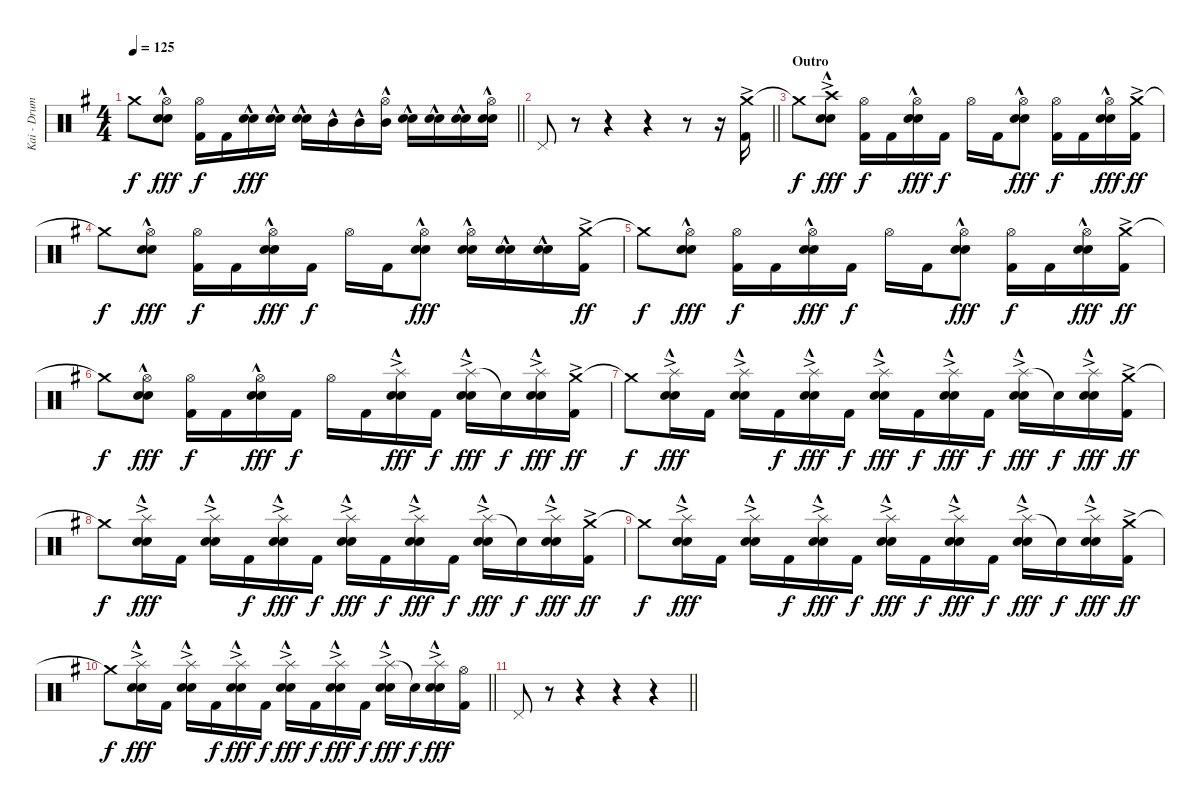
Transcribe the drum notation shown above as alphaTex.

\track ("Kai - Drums" "Kai - Drum") {instrument percussion}
\staff {score}
\articulation defaults
\ts (4 4)
\tempo 125
\clef neutral
\barLineRight lightlight
\ks eminor "Crash medium (hit)"{t}.8{dy f}
("Hi-Hat (open)" "Electric Snare (hit)"{hac} "Snare (hit) 2"{hac}).8{dy fff} ("Hi-Hat (open)" "Kick (hit) 2").16{dy f} "Kick (hit) 2".16 ("Electric Snare (hit)"{hac} "Snare (hit) 2"{hac}).16{dy fff} ("Electric Snare (hit)"{hac} "Snare (hit) 2"{hac}).16 ("Electric Snare (hit)"{hac} "Snare (hit) 2"{hac}).16 "Mid Tom (hit)"{hac}.16 "Mid Tom (hit)"{hac}.16 ("Hi-Hat (open)" "Mid Tom (hit)"{hac}).16 ("Electric Snare (hit)"{hac} "Snare (hit) 2"{hac}).16 ("Electric Snare (hit)"{hac} "Snare (hit) 2"{hac}).16 ("Electric Snare (hit)"{hac} "Snare (hit) 2"{hac}).16 ("Hi-Hat (open)" "Electric Snare (hit)"{hac} "Snare (hit) 2"{hac}).16 |
\barLineRight lightlight "Pedal Hi-Hat (hit)".8
r.8 r.4 r.4 r.8 r.16 ("Crash medium (hit)"{ac} "Kick (hit) 2").16 |
\section ("" "Outro")
"Crash medium (hit)"{t}.8{dy f} ("Crash high (hit)"{ac} "Electric Snare (hit)"{hac} "Snare (hit) 2"{hac}).8{dy fff} ("Hi-Hat (open)" "Kick (hit) 2").16{dy f} "Kick (hit) 2".16 ("Hi-Hat (open)" "Electric Snare (hit)"{hac} "Snare (hit) 2"{hac}).16{dy fff} "Kick (hit) 2".16{dy f} "Hi-Hat (open)".16 "Kick (hit) 2".16 ("Hi-Hat (open)" "Electric Snare (hit)"{hac} "Snare (hit) 2"{hac}).8{dy fff} ("Hi-Hat (open)" "Kick (hit) 2").16{dy f} "Kick (hit) 2".16 ("Hi-Hat (open)" "Electric Snare (hit)"{hac} "Snare (hit) 2"{hac}).16{dy fff} ("Crash medium (hit)"{ac} "Kick (hit) 2").16{dy ff} |
"Crash medium (hit)"{t}.8{dy f} ("Hi-Hat (open)" "Electric Snare (hit)"{hac} "Snare (hit) 2"{hac}).8{dy fff} ("Hi-Hat (open)" "Kick (hit) 2").16{dy f} "Kick (hit) 2".16 ("Hi-Hat (open)" "Electric Snare (hit)"{hac} "Snare (hit) 2"{hac}).16{dy fff} "Kick (hit) 2".16{dy f} "Hi-Hat (open)".16 "Kick (hit) 2".16 ("Hi-Hat (open)" "Electric Snare (hit)"{hac} "Snare (hit) 2"{hac}).8{dy fff} ("Hi-Hat (open)" "Electric Snare (hit)"{hac} "Snare (hit) 2"{hac}).16 ("Electric Snare (hit)"{hac} "Snare (hit) 2"{hac}).16 ("Electric Snare (hit)"{hac} "Snare (hit) 2"{hac}).16 ("Crash medium (hit)"{ac} "Kick (hit) 2").16{dy ff} |
"Crash medium (hit)"{t}.8{dy f} ("Hi-Hat (open)" "Electric Snare (hit)"{hac} "Snare (hit) 2"{hac}).8{dy fff} ("Hi-Hat (open)" "Kick (hit) 2").16{dy f} "Kick (hit) 2".16 ("Hi-Hat (open)" "Electric Snare (hit)"{hac} "Snare (hit) 2"{hac}).16{dy fff} "Kick (hit) 2".16{dy f} "Hi-Hat (open)".16 "Kick (hit) 2".16 ("Hi-Hat (open)" "Electric Snare (hit)"{hac} "Snare (hit) 2"{hac}).8{dy fff} ("Hi-Hat (open)" "Kick (hit) 2").16{dy f} "Kick (hit) 2".16 ("Hi-Hat (open)" "Electric Snare (hit)"{hac} "Snare (hit) 2"{hac}).16{dy fff} ("Crash medium (hit)"{ac} "Kick (hit) 2").16{dy ff} |
"Crash medium (hit)"{t}.8{dy f} ("Hi-Hat (open)" "Electric Snare (hit)"{hac} "Snare (hit) 2"{hac}).8{dy fff} ("Hi-Hat (open)" "Kick (hit) 2").16{dy f} "Kick (hit) 2".16 ("Hi-Hat (open)" "Electric Snare (hit)"{hac} "Snare (hit) 2"{hac}).16{dy fff} "Kick (hit) 2".16{dy f} "Hi-Hat (open)".16 "Kick (hit) 2".16 ("Splash (hit)"{ac} "Electric Snare (hit)"{hac} "Snare (hit) 2"{hac}).16{dy fff} "Kick (hit) 2".16{dy f} ("Splash (hit)"{ac} "Electric Snare (hit)"{hac} "Snare (hit) 2"{hac}).16{dy fff} "Snare (hit)"{t}.16{dy f} ("Splash (hit)"{ac} "Electric Snare (hit)"{hac} "Snare (hit) 2"{hac}).16{dy fff} ("Crash medium (hit)"{ac} "Kick (hit) 2").16{dy ff} |
"Crash medium (hit)"{t}.8{dy f} ("Splash (hit)"{ac} "Electric Snare (hit)"{hac} "Snare (hit) 2"{hac}).16{dy fff} "Kick (hit) 2".16 ("Splash (hit)"{ac} "Electric Snare (hit)"{hac} "Snare (hit) 2"{hac}).16 "Kick (hit) 2".16{dy f} ("Splash (hit)"{ac} "Electric Snare (hit)"{hac} "Snare (hit) 2"{hac}).16{dy fff} "Kick (hit) 2".16{dy f} ("Splash (hit)"{ac} "Electric Snare (hit)"{hac} "Snare (hit) 2"{hac}).16{dy fff} "Kick (hit) 2".16{dy f} ("Splash (hit)"{ac} "Electric Snare (hit)"{hac} "Snare (hit) 2"{hac}).16{dy fff} "Kick (hit) 2".16{dy f} ("Splash (hit)"{ac} "Electric Snare (hit)"{hac} "Snare (hit) 2"{hac}).16{dy fff} "Snare (hit)"{t}.16{dy f} ("Splash (hit)"{ac} "Electric Snare (hit)"{hac} "Snare (hit) 2"{hac}).16{dy fff} ("Crash medium (hit)"{ac} "Kick (hit) 2").16{dy ff} |
"Crash medium (hit)"{t}.8{dy f} ("Splash (hit)"{ac} "Electric Snare (hit)"{hac} "Snare (hit) 2"{hac}).16{dy fff} "Kick (hit) 2".16 ("Splash (hit)"{ac} "Electric Snare (hit)"{hac} "Snare (hit) 2"{hac}).16 "Kick (hit) 2".16{dy f} ("Splash (hit)"{ac} "Electric Snare (hit)"{hac} "Snare (hit) 2"{hac}).16{dy fff} "Kick (hit) 2".16{dy f} ("Splash (hit)"{ac} "Electric Snare (hit)"{hac} "Snare (hit) 2"{hac}).16{dy fff} "Kick (hit) 2".16{dy f} ("Splash (hit)"{ac} "Electric Snare (hit)"{hac} "Snare (hit) 2"{hac}).16{dy fff} "Kick (hit) 2".16{dy f} ("Splash (hit)"{ac} "Electric Snare (hit)"{hac} "Snare (hit) 2"{hac}).16{dy fff} "Snare (hit)"{t}.16{dy f} ("Splash (hit)"{ac} "Electric Snare (hit)"{hac} "Snare (hit) 2"{hac}).16{dy fff} ("Crash medium (hit)"{ac} "Kick (hit) 2").16{dy ff} |
"Crash medium (hit)"{t}.8{dy f} ("Splash (hit)"{ac} "Electric Snare (hit)"{hac} "Snare (hit) 2"{hac}).16{dy fff} "Kick (hit) 2".16 ("Splash (hit)"{ac} "Electric Snare (hit)"{hac} "Snare (hit) 2"{hac}).16 "Kick (hit) 2".16{dy f} ("Splash (hit)"{ac} "Electric Snare (hit)"{hac} "Snare (hit) 2"{hac}).16{dy fff} "Kick (hit) 2".16{dy f} ("Splash (hit)"{ac} "Electric Snare (hit)"{hac} "Snare (hit) 2"{hac}).16{dy fff} "Kick (hit) 2".16{dy f} ("Splash (hit)"{ac} "Electric Snare (hit)"{hac} "Snare (hit) 2"{hac}).16{dy fff} "Kick (hit) 2".16{dy f} ("Splash (hit)"{ac} "Electric Snare (hit)"{hac} "Snare (hit) 2"{hac}).16{dy fff} "Snare (hit)"{t}.16{dy f} ("Splash (hit)"{ac} "Electric Snare (hit)"{hac} "Snare (hit) 2"{hac}).16{dy fff} ("Crash medium (hit)"{ac} "Kick (hit) 2").16{dy ff} |
\barLineRight lightlight "Crash medium (hit)"{t}.8{dy f}
("Splash (hit)"{ac} "Electric Snare (hit)"{hac} "Snare (hit) 2"{hac}).16{dy fff} "Kick (hit) 2".16 ("Splash (hit)"{ac} "Electric Snare (hit)"{hac} "Snare (hit) 2"{hac}).16 "Kick (hit) 2".16{dy f} ("Splash (hit)"{ac} "Electric Snare (hit)"{hac} "Snare (hit) 2"{hac}).16{dy fff} "Kick (hit) 2".16{dy f} ("Splash (hit)"{ac} "Electric Snare (hit)"{hac} "Snare (hit) 2"{hac}).16{dy fff} "Kick (hit) 2".16{dy f} ("Splash (hit)"{ac} "Electric Snare (hit)"{hac} "Snare (hit) 2"{hac}).16{dy fff} "Kick (hit) 2".16{dy f} ("Splash (hit)"{ac} "Electric Snare (hit)"{hac} "Snare (hit) 2"{hac}).16{dy fff} "Snare (hit)"{t}.16{dy f} ("Splash (hit)"{ac} "Electric Snare (hit)"{hac} "Snare (hit) 2"{hac}).16{dy fff} ("Hi-Hat (open)" "Kick (hit) 2").16 |
\barLineRight lightlight "Pedal Hi-Hat (hit)".8
r.8 r.4 r.4 r.4
